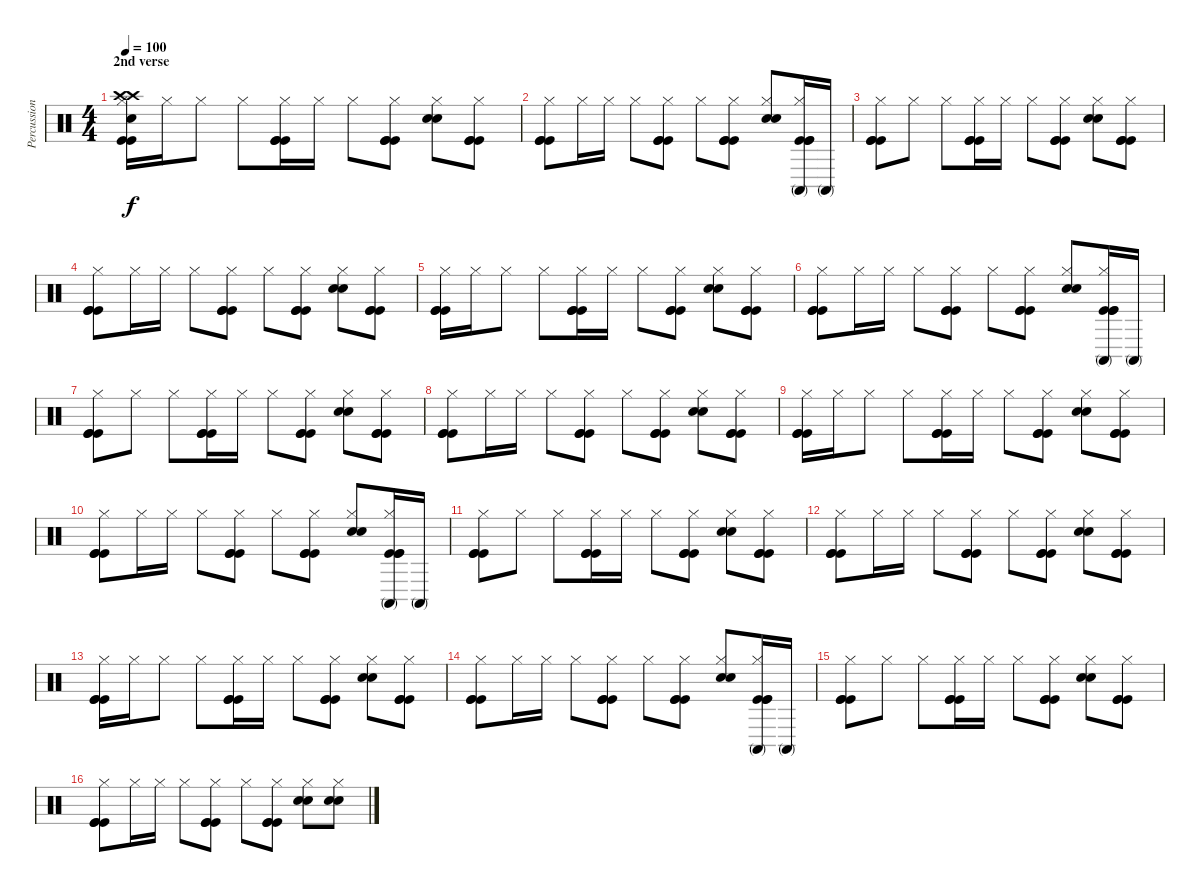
\track ("Percussion" "Percussion") {instrument percussion}
\staff {score}
\articulation defaults
\ts (4 4)
\section ("" "2nd verse")
\tempo 100
\clef neutral
\ks c
("Hi-Hat (closed)" "Crash high (hit)" "Crash high (hit)" "Electric Snare (hit)" "Kick (hit)" "Kick (hit)").16{dy f} "Hi-Hat (closed)".16 "Hi-Hat (closed)".8 "Hi-Hat (closed)".8 ("Hi-Hat (closed)" "Kick (hit)" "Kick (hit)" "Kick (hit)").16 "Hi-Hat (closed)".16 "Hi-Hat (closed)".8 ("Hi-Hat (closed)" "Kick (hit)" "Kick (hit)" "Kick (hit)").8 ("Hi-Hat (closed)" "Electric Snare (hit)" "Electric Snare (hit)").8 ("Hi-Hat (closed)" "Kick (hit)" "Kick (hit)" "Kick (hit)").8 |
("Hi-Hat (closed)" "Kick (hit)" "Kick (hit)" "Kick (hit)").8 "Hi-Hat (closed)".16 "Hi-Hat (closed)".16 "Hi-Hat (closed)".8 ("Hi-Hat (closed)" "Kick (hit)" "Kick (hit)" "Kick (hit)").8 "Hi-Hat (closed)".8 ("Hi-Hat (closed)" "Kick (hit)" "Kick (hit)" "Kick (hit)").8 ("Hi-Hat (closed)" "Electric Snare (hit)" "Electric Snare (hit)").8 ("Hi-Hat (closed)" "Conga high (mute)" "Kick (hit)" "Kick (hit)" "Kick (hit)").16 "Conga high (mute)".16 |
("Hi-Hat (closed)" "Kick (hit)" "Kick (hit)" "Kick (hit)").8 "Hi-Hat (closed)".8 "Hi-Hat (closed)".8 ("Hi-Hat (closed)" "Kick (hit)" "Kick (hit)" "Kick (hit)").16 "Hi-Hat (closed)".16 "Hi-Hat (closed)".8 ("Hi-Hat (closed)" "Kick (hit)" "Kick (hit)" "Kick (hit)").8 ("Hi-Hat (closed)" "Electric Snare (hit)" "Electric Snare (hit)").8 ("Hi-Hat (closed)" "Kick (hit)" "Kick (hit)" "Kick (hit)").8 |
("Hi-Hat (closed)" "Kick (hit)" "Kick (hit)" "Kick (hit)").8 "Hi-Hat (closed)".16 "Hi-Hat (closed)".16 "Hi-Hat (closed)".8 ("Hi-Hat (closed)" "Kick (hit)" "Kick (hit)" "Kick (hit)").8 "Hi-Hat (closed)".8 ("Hi-Hat (closed)" "Kick (hit)" "Kick (hit)" "Kick (hit)").8 ("Hi-Hat (closed)" "Electric Snare (hit)" "Electric Snare (hit)").8 ("Hi-Hat (closed)" "Kick (hit)" "Kick (hit)" "Kick (hit)").8 |
("Hi-Hat (closed)" "Kick (hit)" "Kick (hit)" "Kick (hit)").16 "Hi-Hat (closed)".16 "Hi-Hat (closed)".8 "Hi-Hat (closed)".8 ("Hi-Hat (closed)" "Kick (hit)" "Kick (hit)" "Kick (hit)").16 "Hi-Hat (closed)".16 "Hi-Hat (closed)".8 ("Hi-Hat (closed)" "Kick (hit)" "Kick (hit)" "Kick (hit)").8 ("Hi-Hat (closed)" "Electric Snare (hit)" "Electric Snare (hit)").8 ("Hi-Hat (closed)" "Kick (hit)" "Kick (hit)" "Kick (hit)").8 |
("Hi-Hat (closed)" "Kick (hit)" "Kick (hit)" "Kick (hit)").8 "Hi-Hat (closed)".16 "Hi-Hat (closed)".16 "Hi-Hat (closed)".8 ("Hi-Hat (closed)" "Kick (hit)" "Kick (hit)" "Kick (hit)").8 "Hi-Hat (closed)".8 ("Hi-Hat (closed)" "Kick (hit)" "Kick (hit)" "Kick (hit)").8 ("Hi-Hat (closed)" "Electric Snare (hit)" "Electric Snare (hit)").8 ("Hi-Hat (closed)" "Conga high (mute)" "Kick (hit)" "Kick (hit)" "Kick (hit)").16 "Conga high (mute)".16 |
("Hi-Hat (closed)" "Kick (hit)" "Kick (hit)" "Kick (hit)").8 "Hi-Hat (closed)".8 "Hi-Hat (closed)".8 ("Hi-Hat (closed)" "Kick (hit)" "Kick (hit)" "Kick (hit)").16 "Hi-Hat (closed)".16 "Hi-Hat (closed)".8 ("Hi-Hat (closed)" "Kick (hit)" "Kick (hit)" "Kick (hit)").8 ("Hi-Hat (closed)" "Electric Snare (hit)" "Electric Snare (hit)").8 ("Hi-Hat (closed)" "Kick (hit)" "Kick (hit)" "Kick (hit)").8 |
("Hi-Hat (closed)" "Kick (hit)" "Kick (hit)" "Kick (hit)").8 "Hi-Hat (closed)".16 "Hi-Hat (closed)".16 "Hi-Hat (closed)".8 ("Hi-Hat (closed)" "Kick (hit)" "Kick (hit)" "Kick (hit)").8 "Hi-Hat (closed)".8 ("Hi-Hat (closed)" "Kick (hit)" "Kick (hit)" "Kick (hit)").8 ("Hi-Hat (closed)" "Electric Snare (hit)" "Electric Snare (hit)").8 ("Hi-Hat (closed)" "Kick (hit)" "Kick (hit)" "Kick (hit)").8 |
("Hi-Hat (closed)" "Kick (hit)" "Kick (hit)" "Kick (hit)").16 "Hi-Hat (closed)".16 "Hi-Hat (closed)".8 "Hi-Hat (closed)".8 ("Hi-Hat (closed)" "Kick (hit)" "Kick (hit)" "Kick (hit)").16 "Hi-Hat (closed)".16 "Hi-Hat (closed)".8 ("Hi-Hat (closed)" "Kick (hit)" "Kick (hit)" "Kick (hit)").8 ("Hi-Hat (closed)" "Electric Snare (hit)" "Electric Snare (hit)").8 ("Hi-Hat (closed)" "Kick (hit)" "Kick (hit)" "Kick (hit)").8 |
("Hi-Hat (closed)" "Kick (hit)" "Kick (hit)" "Kick (hit)").8 "Hi-Hat (closed)".16 "Hi-Hat (closed)".16 "Hi-Hat (closed)".8 ("Hi-Hat (closed)" "Kick (hit)" "Kick (hit)" "Kick (hit)").8 "Hi-Hat (closed)".8 ("Hi-Hat (closed)" "Kick (hit)" "Kick (hit)" "Kick (hit)").8 ("Hi-Hat (closed)" "Electric Snare (hit)" "Electric Snare (hit)").8 ("Hi-Hat (closed)" "Conga high (mute)" "Kick (hit)" "Kick (hit)" "Kick (hit)").16 "Conga high (mute)".16 |
("Hi-Hat (closed)" "Kick (hit)" "Kick (hit)" "Kick (hit)").8 "Hi-Hat (closed)".8 "Hi-Hat (closed)".8 ("Hi-Hat (closed)" "Kick (hit)" "Kick (hit)" "Kick (hit)").16 "Hi-Hat (closed)".16 "Hi-Hat (closed)".8 ("Hi-Hat (closed)" "Kick (hit)" "Kick (hit)" "Kick (hit)").8 ("Hi-Hat (closed)" "Electric Snare (hit)" "Electric Snare (hit)").8 ("Hi-Hat (closed)" "Kick (hit)" "Kick (hit)" "Kick (hit)").8 |
("Hi-Hat (closed)" "Kick (hit)" "Kick (hit)" "Kick (hit)").8 "Hi-Hat (closed)".16 "Hi-Hat (closed)".16 "Hi-Hat (closed)".8 ("Hi-Hat (closed)" "Kick (hit)" "Kick (hit)" "Kick (hit)").8 "Hi-Hat (closed)".8 ("Hi-Hat (closed)" "Kick (hit)" "Kick (hit)" "Kick (hit)").8 ("Hi-Hat (closed)" "Electric Snare (hit)" "Electric Snare (hit)").8 ("Hi-Hat (closed)" "Kick (hit)" "Kick (hit)" "Kick (hit)").8 |
("Hi-Hat (closed)" "Kick (hit)" "Kick (hit)" "Kick (hit)").16 "Hi-Hat (closed)".16 "Hi-Hat (closed)".8 "Hi-Hat (closed)".8 ("Hi-Hat (closed)" "Kick (hit)" "Kick (hit)" "Kick (hit)").16 "Hi-Hat (closed)".16 "Hi-Hat (closed)".8 ("Hi-Hat (closed)" "Kick (hit)" "Kick (hit)" "Kick (hit)").8 ("Hi-Hat (closed)" "Electric Snare (hit)" "Electric Snare (hit)").8 ("Hi-Hat (closed)" "Kick (hit)" "Kick (hit)" "Kick (hit)").8 |
("Hi-Hat (closed)" "Kick (hit)" "Kick (hit)" "Kick (hit)").8 "Hi-Hat (closed)".16 "Hi-Hat (closed)".16 "Hi-Hat (closed)".8 ("Hi-Hat (closed)" "Kick (hit)" "Kick (hit)" "Kick (hit)").8 "Hi-Hat (closed)".8 ("Hi-Hat (closed)" "Kick (hit)" "Kick (hit)" "Kick (hit)").8 ("Hi-Hat (closed)" "Electric Snare (hit)" "Electric Snare (hit)").8 ("Hi-Hat (closed)" "Conga high (mute)" "Kick (hit)" "Kick (hit)" "Kick (hit)").16 "Conga high (mute)".16 |
("Hi-Hat (closed)" "Kick (hit)" "Kick (hit)" "Kick (hit)").8 "Hi-Hat (closed)".8 "Hi-Hat (closed)".8 ("Hi-Hat (closed)" "Kick (hit)" "Kick (hit)" "Kick (hit)").16 "Hi-Hat (closed)".16 "Hi-Hat (closed)".8 ("Hi-Hat (closed)" "Kick (hit)" "Kick (hit)" "Kick (hit)").8 ("Hi-Hat (closed)" "Electric Snare (hit)" "Electric Snare (hit)").8 ("Hi-Hat (closed)" "Kick (hit)" "Kick (hit)" "Kick (hit)").8 |
("Hi-Hat (closed)" "Kick (hit)" "Kick (hit)" "Kick (hit)").8 "Hi-Hat (closed)".16 "Hi-Hat (closed)".16 "Hi-Hat (closed)".8 ("Hi-Hat (closed)" "Kick (hit)" "Kick (hit)" "Kick (hit)").8 "Hi-Hat (closed)".8 ("Hi-Hat (closed)" "Kick (hit)" "Kick (hit)" "Kick (hit)").8 ("Hi-Hat (closed)" "Electric Snare (hit)" "Electric Snare (hit)").8 ("Hi-Hat (closed)" "Electric Snare (hit)" "Electric Snare (hit)").8
